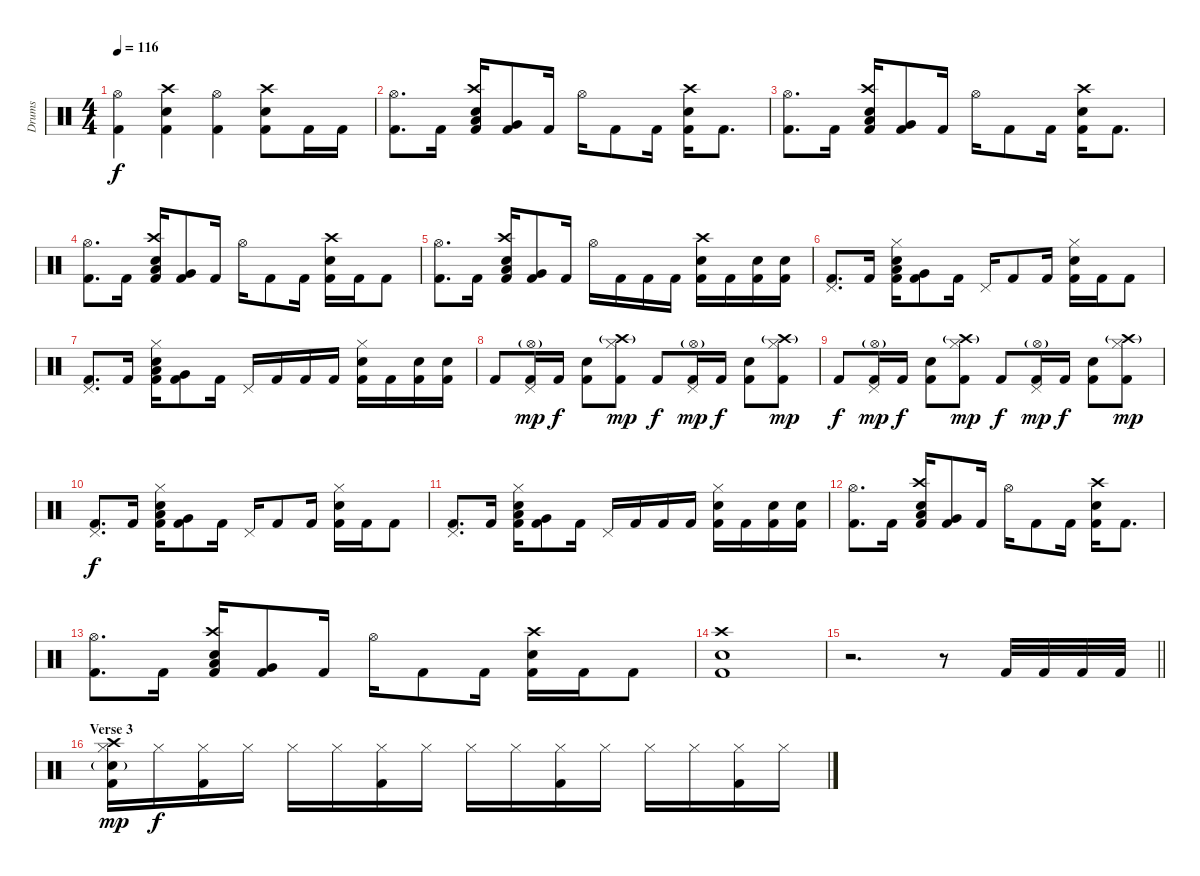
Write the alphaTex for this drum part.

\track ("Drums" "Drums") {instrument percussion}
\staff {score}
\articulation defaults
\ts (4 4)
\tempo 116
\clef neutral
\ks c
("Kick (hit) 2" "Hi-Hat (open)").4{dy f} ("Kick (hit) 2" "Electric Snare (hit)" "Crash high (hit)").4 ("Kick (hit) 2" "Hi-Hat (open)").4 ("Kick (hit) 2" "Electric Snare (hit)" "Crash high (hit)").8 "Kick (hit) 2".16 "Kick (hit) 2".16 |
("Kick (hit) 2" "Hi-Hat (open)").8{d} "Kick (hit) 2".16 ("Kick (hit) 2" "Low Tom (hit)" "Electric Snare (hit)" "Crash high (hit)").16 ("Kick (hit) 2" "Very Low Tom (hit)").8 "Kick (hit) 2".16 "Hi-Hat (open)".16 "Kick (hit) 2".8 "Kick (hit) 2".16 ("Kick (hit) 2" "Electric Snare (hit)" "Crash high (hit)").16 "Kick (hit) 2".8{d} |
("Kick (hit) 2" "Hi-Hat (open)").8{d} "Kick (hit) 2".16 ("Kick (hit) 2" "Low Tom (hit)" "Electric Snare (hit)" "Crash high (hit)").16 ("Kick (hit) 2" "Very Low Tom (hit)").8 "Kick (hit) 2".16 "Hi-Hat (open)".16 "Kick (hit) 2".8 "Kick (hit) 2".16 ("Kick (hit) 2" "Electric Snare (hit)" "Crash high (hit)").16 "Kick (hit) 2".8{d} |
("Kick (hit) 2" "Hi-Hat (open)").8{d} "Kick (hit) 2".16 ("Kick (hit) 2" "Low Tom (hit)" "Electric Snare (hit)" "Crash high (hit)").16 ("Kick (hit) 2" "Very Low Tom (hit)").8 "Kick (hit) 2".16 "Hi-Hat (open)".16 "Kick (hit) 2".8 "Kick (hit) 2".16 ("Kick (hit) 2" "Electric Snare (hit)" "Crash high (hit)").16 "Kick (hit) 2".16 "Kick (hit) 2".8 |
("Kick (hit) 2" "Hi-Hat (open)").8{d} "Kick (hit) 2".16 ("Kick (hit) 2" "Low Tom (hit)" "Electric Snare (hit)" "Crash high (hit)").16 ("Kick (hit) 2" "Very Low Tom (hit)").8 "Kick (hit) 2".16 "Hi-Hat (open)".16 "Kick (hit) 2".16 "Kick (hit) 2".16 "Kick (hit) 2".16 ("Kick (hit) 2" "Electric Snare (hit)" "Crash high (hit)").16 "Kick (hit) 2".16 ("Kick (hit) 2" "Electric Snare (hit)").16 ("Kick (hit) 2" "Electric Snare (hit)").16 |
("Kick (hit) 2" "Pedal Hi-Hat (hit)").8{d} "Kick (hit) 2".16 ("Kick (hit) 2" "Low Tom (hit)" "Electric Snare (hit)" "Hi-Hat (closed)").16 ("Kick (hit) 2" "Very Low Tom (hit)").8 "Kick (hit) 2".16 "Pedal Hi-Hat (hit)".16 "Kick (hit) 2".8 "Kick (hit) 2".16 ("Kick (hit) 2" "Electric Snare (hit)" "Hi-Hat (closed)").16 "Kick (hit) 2".16 "Kick (hit) 2".8 |
("Kick (hit) 2" "Pedal Hi-Hat (hit)").8{d} "Kick (hit) 2".16 ("Kick (hit) 2" "Low Tom (hit)" "Electric Snare (hit)" "Hi-Hat (closed)").16 ("Kick (hit) 2" "Very Low Tom (hit)").8 "Kick (hit) 2".16 "Pedal Hi-Hat (hit)".16 "Kick (hit) 2".16 "Kick (hit) 2".16 "Kick (hit) 2".16 ("Kick (hit) 2" "Electric Snare (hit)" "Hi-Hat (closed)").16 "Kick (hit) 2".16 ("Kick (hit) 2" "Electric Snare (hit)").16 ("Kick (hit) 2" "Electric Snare (hit)").16 |
"Kick (hit) 2".8 ("Kick (hit) 2" "Hi-Hat (open)"{g} "Pedal Hi-Hat (hit)").16{dy mp} "Kick (hit) 2".16{dy f} ("Kick (hit) 2" "Electric Snare (hit)").8 ("Kick (hit) 2" "Crash high (hit)"{g} "Hi-Hat (closed)").8{dy mp} "Kick (hit) 2".8{dy f} ("Kick (hit) 2" "Hi-Hat (open)"{g} "Pedal Hi-Hat (hit)").16{dy mp} "Kick (hit) 2".16{dy f} ("Kick (hit) 2" "Electric Snare (hit)").8 ("Kick (hit) 2" "Crash high (hit)"{g} "Hi-Hat (closed)").8{dy mp} |
"Kick (hit) 2".8{dy f} ("Kick (hit) 2" "Hi-Hat (open)"{g} "Pedal Hi-Hat (hit)").16{dy mp} "Kick (hit) 2".16{dy f} ("Kick (hit) 2" "Electric Snare (hit)").8 ("Kick (hit) 2" "Crash high (hit)"{g} "Hi-Hat (closed)").8{dy mp} "Kick (hit) 2".8{dy f} ("Kick (hit) 2" "Hi-Hat (open)"{g} "Pedal Hi-Hat (hit)").16{dy mp} "Kick (hit) 2".16{dy f} ("Kick (hit) 2" "Electric Snare (hit)").8 ("Kick (hit) 2" "Crash high (hit)"{g} "Hi-Hat (closed)").8{dy mp} |
("Kick (hit) 2" "Pedal Hi-Hat (hit)").8{d dy f} "Kick (hit) 2".16 ("Kick (hit) 2" "Low Tom (hit)" "Electric Snare (hit)" "Hi-Hat (closed)").16 ("Kick (hit) 2" "Very Low Tom (hit)").8 "Kick (hit) 2".16 "Pedal Hi-Hat (hit)".16 "Kick (hit) 2".8 "Kick (hit) 2".16 ("Kick (hit) 2" "Electric Snare (hit)" "Hi-Hat (closed)").16 "Kick (hit) 2".16 "Kick (hit) 2".8 |
("Kick (hit) 2" "Pedal Hi-Hat (hit)").8{d} "Kick (hit) 2".16 ("Kick (hit) 2" "Low Tom (hit)" "Electric Snare (hit)" "Hi-Hat (closed)").16 ("Kick (hit) 2" "Very Low Tom (hit)").8 "Kick (hit) 2".16 "Pedal Hi-Hat (hit)".16 "Kick (hit) 2".16 "Kick (hit) 2".16 "Kick (hit) 2".16 ("Kick (hit) 2" "Electric Snare (hit)" "Hi-Hat (closed)").16 "Kick (hit) 2".16 ("Kick (hit) 2" "Electric Snare (hit)").16 ("Kick (hit) 2" "Electric Snare (hit)").16 |
("Kick (hit) 2" "Hi-Hat (open)").8{d} "Kick (hit) 2".16 ("Kick (hit) 2" "Low Tom (hit)" "Electric Snare (hit)" "Crash high (hit)").16 ("Kick (hit) 2" "Very Low Tom (hit)").8 "Kick (hit) 2".16 "Hi-Hat (open)".16 "Kick (hit) 2".8 "Kick (hit) 2".16 ("Kick (hit) 2" "Electric Snare (hit)" "Crash high (hit)").16 "Kick (hit) 2".8{d} |
("Kick (hit) 2" "Hi-Hat (open)").8{d} "Kick (hit) 2".16 ("Kick (hit) 2" "Low Tom (hit)" "Electric Snare (hit)" "Crash high (hit)").16 ("Kick (hit) 2" "Very Low Tom (hit)").8 "Kick (hit) 2".16 "Hi-Hat (open)".16 "Kick (hit) 2".8 "Kick (hit) 2".16 ("Kick (hit) 2" "Electric Snare (hit)" "Crash high (hit)").16 "Kick (hit) 2".16 "Kick (hit) 2".8 |
("Electric Snare (hit)" "Kick (hit) 2" "Crash high (hit)").1 |
\barLineRight lightlight
r.2{d} r.8 "Kick (hit) 2".32 "Kick (hit) 2".32 "Kick (hit) 2".32 "Kick (hit) 2".32 |
\section ("" "Verse 3")
("Hi-Hat (closed)" "Crash high (hit)" "Kick (hit) 2" "Electric Snare (hit)"{g}).16{dy mp} "Hi-Hat (closed)".16{dy f} ("Hi-Hat (closed)" "Kick (hit) 2").16 "Hi-Hat (closed)".16 "Hi-Hat (closed)".16 "Hi-Hat (closed)".16 ("Hi-Hat (closed)" "Kick (hit) 2").16 "Hi-Hat (closed)".16 "Hi-Hat (closed)".16 "Hi-Hat (closed)".16 ("Hi-Hat (closed)" "Kick (hit) 2").16 "Hi-Hat (closed)".16 "Hi-Hat (closed)".16 "Hi-Hat (closed)".16 ("Hi-Hat (closed)" "Kick (hit) 2").16 "Hi-Hat (closed)".16
